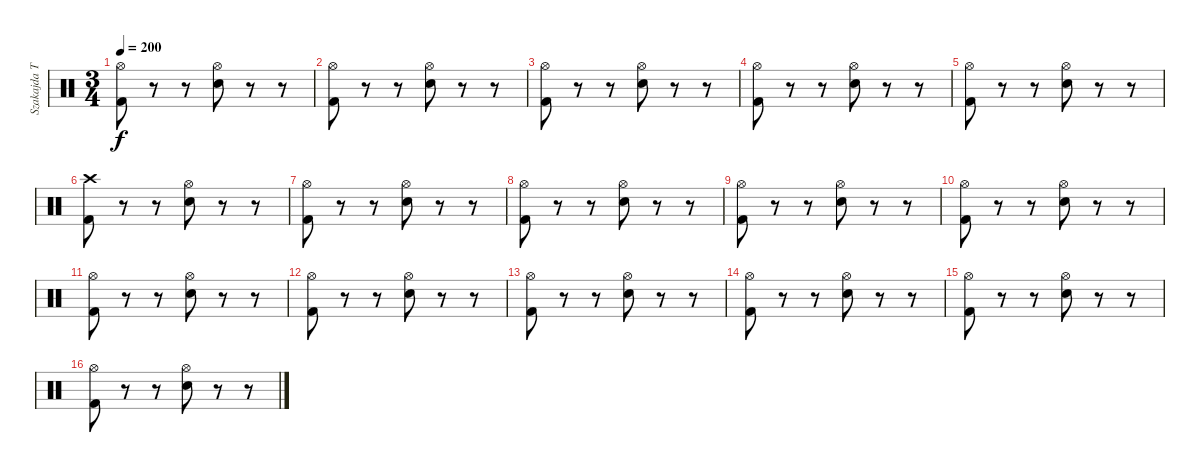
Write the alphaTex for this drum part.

\track ("Szakajda Tibi" "Szakajda T") {instrument percussion}
\staff {score}
\articulation defaults
\ts (3 4)
\tempo 200
\clef neutral
\ks c
("Hi-Hat (open)" "Kick (hit) 2").8{dy f} r.8 r.8 ("Hi-Hat (open)" "Electric Snare (hit)").8 r.8 r.8 |
("Hi-Hat (open)" "Kick (hit) 2").8 r.8 r.8 ("Hi-Hat (open)" "Electric Snare (hit)").8 r.8 r.8 |
("Hi-Hat (open)" "Kick (hit) 2").8 r.8 r.8 ("Hi-Hat (open)" "Electric Snare (hit)").8 r.8 r.8 |
("Hi-Hat (open)" "Kick (hit) 2").8 r.8 r.8 ("Hi-Hat (open)" "Electric Snare (hit)").8 r.8 r.8 |
("Hi-Hat (open)" "Kick (hit) 2").8 r.8 r.8 ("Hi-Hat (open)" "Electric Snare (hit)").8 r.8 r.8 |
("Crash high (hit)" "Kick (hit) 2").8 r.8 r.8 ("Hi-Hat (open)" "Electric Snare (hit)").8 r.8 r.8 |
("Hi-Hat (open)" "Kick (hit) 2").8 r.8 r.8 ("Hi-Hat (open)" "Electric Snare (hit)").8 r.8 r.8 |
("Hi-Hat (open)" "Kick (hit) 2").8 r.8 r.8 ("Hi-Hat (open)" "Electric Snare (hit)").8 r.8 r.8 |
("Hi-Hat (open)" "Kick (hit) 2").8 r.8 r.8 ("Hi-Hat (open)" "Electric Snare (hit)").8 r.8 r.8 |
("Hi-Hat (open)" "Kick (hit) 2").8 r.8 r.8 ("Hi-Hat (open)" "Electric Snare (hit)").8 r.8 r.8 |
("Hi-Hat (open)" "Kick (hit) 2").8 r.8 r.8 ("Hi-Hat (open)" "Electric Snare (hit)").8 r.8 r.8 |
("Hi-Hat (open)" "Kick (hit) 2").8 r.8 r.8 ("Hi-Hat (open)" "Electric Snare (hit)").8 r.8 r.8 |
("Hi-Hat (open)" "Kick (hit) 2").8 r.8 r.8 ("Hi-Hat (open)" "Electric Snare (hit)").8 r.8 r.8 |
("Hi-Hat (open)" "Kick (hit) 2").8 r.8 r.8 ("Hi-Hat (open)" "Electric Snare (hit)").8 r.8 r.8 |
("Hi-Hat (open)" "Kick (hit) 2").8 r.8 r.8 ("Hi-Hat (open)" "Electric Snare (hit)").8 r.8 r.8 |
("Hi-Hat (open)" "Kick (hit) 2").8 r.8 r.8 ("Hi-Hat (open)" "Electric Snare (hit)").8 r.8 r.8
